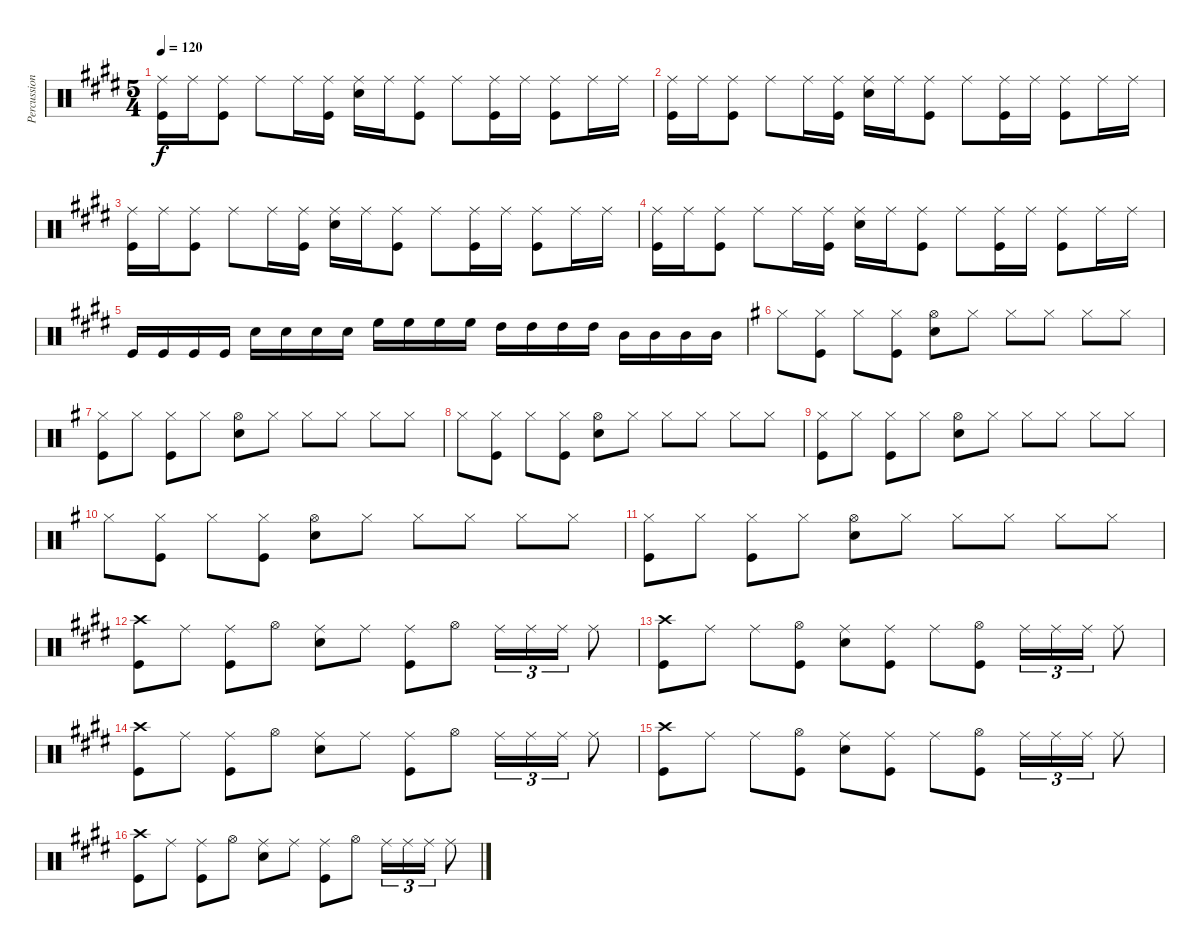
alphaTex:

\track ("Percussion" "Percussion") {instrument percussion}
\staff {score}
\articulation defaults
\ts (5 4)
\tempo 120
\clef neutral
\ks e
("Ride (middle)" "Kick (hit)").16{dy f} "Ride (middle)".16 ("Ride (middle)" "Kick (hit)").8 "Ride (middle)".8 "Ride (middle)".16 ("Ride (middle)" "Kick (hit)").16 ("Ride (middle)" "Snare (hit) 2").16 "Ride (middle)".16 ("Ride (middle)" "Kick (hit)").8 "Ride (middle)".8 ("Ride (middle)" "Kick (hit)").16 "Ride (middle)".16 ("Ride (middle)" "Kick (hit)").8 "Ride (middle)".16 "Ride (middle)".16 |
("Ride (middle)" "Kick (hit)").16 "Ride (middle)".16 ("Ride (middle)" "Kick (hit)").8 "Ride (middle)".8 "Ride (middle)".16 ("Ride (middle)" "Kick (hit)").16 ("Ride (middle)" "Snare (hit) 2").16 "Ride (middle)".16 ("Ride (middle)" "Kick (hit)").8 "Ride (middle)".8 ("Ride (middle)" "Kick (hit)").16 "Ride (middle)".16 ("Ride (middle)" "Kick (hit)").8 "Ride (middle)".16 "Ride (middle)".16 |
("Ride (middle)" "Kick (hit)").16 "Ride (middle)".16 ("Ride (middle)" "Kick (hit)").8 "Ride (middle)".8 "Ride (middle)".16 ("Ride (middle)" "Kick (hit)").16 ("Ride (middle)" "Snare (hit) 2").16 "Ride (middle)".16 ("Ride (middle)" "Kick (hit)").8 "Ride (middle)".8 ("Ride (middle)" "Kick (hit)").16 "Ride (middle)".16 ("Ride (middle)" "Kick (hit)").8 "Ride (middle)".16 "Ride (middle)".16 |
("Ride (middle)" "Kick (hit)").16 "Ride (middle)".16 ("Ride (middle)" "Kick (hit)").8 "Ride (middle)".8 "Ride (middle)".16 ("Ride (middle)" "Kick (hit)").16 ("Ride (middle)" "Snare (hit) 2").16 "Ride (middle)".16 ("Ride (middle)" "Kick (hit)").8 "Ride (middle)".8 ("Ride (middle)" "Kick (hit)").16 "Ride (middle)".16 ("Ride (middle)" "Kick (hit)").8 "Ride (middle)".16 "Ride (middle)".16 |
"Kick (hit)".16 "Kick (hit)".16 "Kick (hit)".16 "Kick (hit)".16 "Snare (hit) 2".16 "Snare (hit) 2".16 "Snare (hit) 2".16 "Snare (hit) 2".16 "High Floor Tom (hit)".16 "High Floor Tom (hit)".16 "High Floor Tom (hit)".16 "High Floor Tom (hit)".16 "High Tom (hit)".16 "High Tom (hit)".16 "High Tom (hit)".16 "High Tom (hit)".16 "Mid Tom (hit)".16 "Mid Tom (hit)".16 "Mid Tom (hit)".16 "Mid Tom (hit)".16 |
\ks g "Hi-Hat (closed)".8
("Hi-Hat (closed)" "Kick (hit)").8 "Hi-Hat (closed)".8 ("Hi-Hat (closed)" "Kick (hit)").8 ("Hi-Hat (open)" "Snare (hit) 2").8 "Hi-Hat (closed)".8 "Hi-Hat (closed)".8 "Hi-Hat (closed)".8 "Hi-Hat (closed)".8 "Hi-Hat (closed)".8 |
("Hi-Hat (closed)" "Kick (hit)").8 "Hi-Hat (closed)".8 ("Hi-Hat (closed)" "Kick (hit)").8 "Hi-Hat (closed)".8 ("Hi-Hat (open)" "Snare (hit) 2").8 "Hi-Hat (closed)".8 "Hi-Hat (closed)".8 "Hi-Hat (closed)".8 "Hi-Hat (closed)".8 "Hi-Hat (closed)".8 |
"Hi-Hat (closed)".8 ("Hi-Hat (closed)" "Kick (hit)").8 "Hi-Hat (closed)".8 ("Hi-Hat (closed)" "Kick (hit)").8 ("Hi-Hat (open)" "Snare (hit) 2").8 "Hi-Hat (closed)".8 "Hi-Hat (closed)".8 "Hi-Hat (closed)".8 "Hi-Hat (closed)".8 "Hi-Hat (closed)".8 |
("Hi-Hat (closed)" "Kick (hit)").8 "Hi-Hat (closed)".8 ("Hi-Hat (closed)" "Kick (hit)").8 "Hi-Hat (closed)".8 ("Hi-Hat (open)" "Snare (hit) 2").8 "Hi-Hat (closed)".8 "Hi-Hat (closed)".8 "Hi-Hat (closed)".8 "Hi-Hat (closed)".8 "Hi-Hat (closed)".8 |
"Hi-Hat (closed)".8 ("Hi-Hat (closed)" "Kick (hit)").8 "Hi-Hat (closed)".8 ("Hi-Hat (closed)" "Kick (hit)").8 ("Hi-Hat (open)" "Snare (hit) 2").8 "Hi-Hat (closed)".8 "Hi-Hat (closed)".8 "Hi-Hat (closed)".8 "Hi-Hat (closed)".8 "Hi-Hat (closed)".8 |
("Hi-Hat (closed)" "Kick (hit)").8 "Hi-Hat (closed)".8 ("Hi-Hat (closed)" "Kick (hit)").8 "Hi-Hat (closed)".8 ("Hi-Hat (open)" "Snare (hit) 2").8 "Hi-Hat (closed)".8 "Hi-Hat (closed)".8 "Hi-Hat (closed)".8 "Hi-Hat (closed)".8 "Hi-Hat (closed)".8 |
\ks e
("Crash high (hit)" "Kick (hit)").8 "Ride (middle)".8 ("Ride (middle)" "Kick (hit)").8 "Hi-Hat (open)".8 ("Ride (middle)" "Snare (hit) 2").8 "Ride (middle)".8 ("Ride (middle)" "Kick (hit)").8 "Hi-Hat (open)".8 "Ride (middle)".16{tu (3 2)} "Ride (middle)".16{tu (3 2)} "Ride (middle)".16{tu (3 2)} "Ride (middle)".8 |
("Crash high (hit)" "Kick (hit)").8 "Ride (middle)".8 "Ride (middle)".8 ("Hi-Hat (open)" "Kick (hit)").8 ("Ride (middle)" "Snare (hit) 2").8 ("Ride (middle)" "Kick (hit)").8 "Ride (middle)".8 ("Hi-Hat (open)" "Kick (hit)").8 "Ride (middle)".16{tu (3 2)} "Ride (middle)".16{tu (3 2)} "Ride (middle)".16{tu (3 2)} "Ride (middle)".8 |
("Crash high (hit)" "Kick (hit)").8 "Ride (middle)".8 ("Ride (middle)" "Kick (hit)").8 "Hi-Hat (open)".8 ("Ride (middle)" "Snare (hit) 2").8 "Ride (middle)".8 ("Ride (middle)" "Kick (hit)").8 "Hi-Hat (open)".8 "Ride (middle)".16{tu (3 2)} "Ride (middle)".16{tu (3 2)} "Ride (middle)".16{tu (3 2)} "Ride (middle)".8 |
("Crash high (hit)" "Kick (hit)").8 "Ride (middle)".8 "Ride (middle)".8 ("Hi-Hat (open)" "Kick (hit)").8 ("Ride (middle)" "Snare (hit) 2").8 ("Ride (middle)" "Kick (hit)").8 "Ride (middle)".8 ("Hi-Hat (open)" "Kick (hit)").8 "Ride (middle)".16{tu (3 2)} "Ride (middle)".16{tu (3 2)} "Ride (middle)".16{tu (3 2)} "Ride (middle)".8 |
("Crash high (hit)" "Kick (hit)").8 "Ride (middle)".8 ("Ride (middle)" "Kick (hit)").8 "Hi-Hat (open)".8 ("Ride (middle)" "Snare (hit) 2").8 "Ride (middle)".8 ("Ride (middle)" "Kick (hit)").8 "Hi-Hat (open)".8 "Ride (middle)".16{tu (3 2)} "Ride (middle)".16{tu (3 2)} "Ride (middle)".16{tu (3 2)} "Ride (middle)".8
